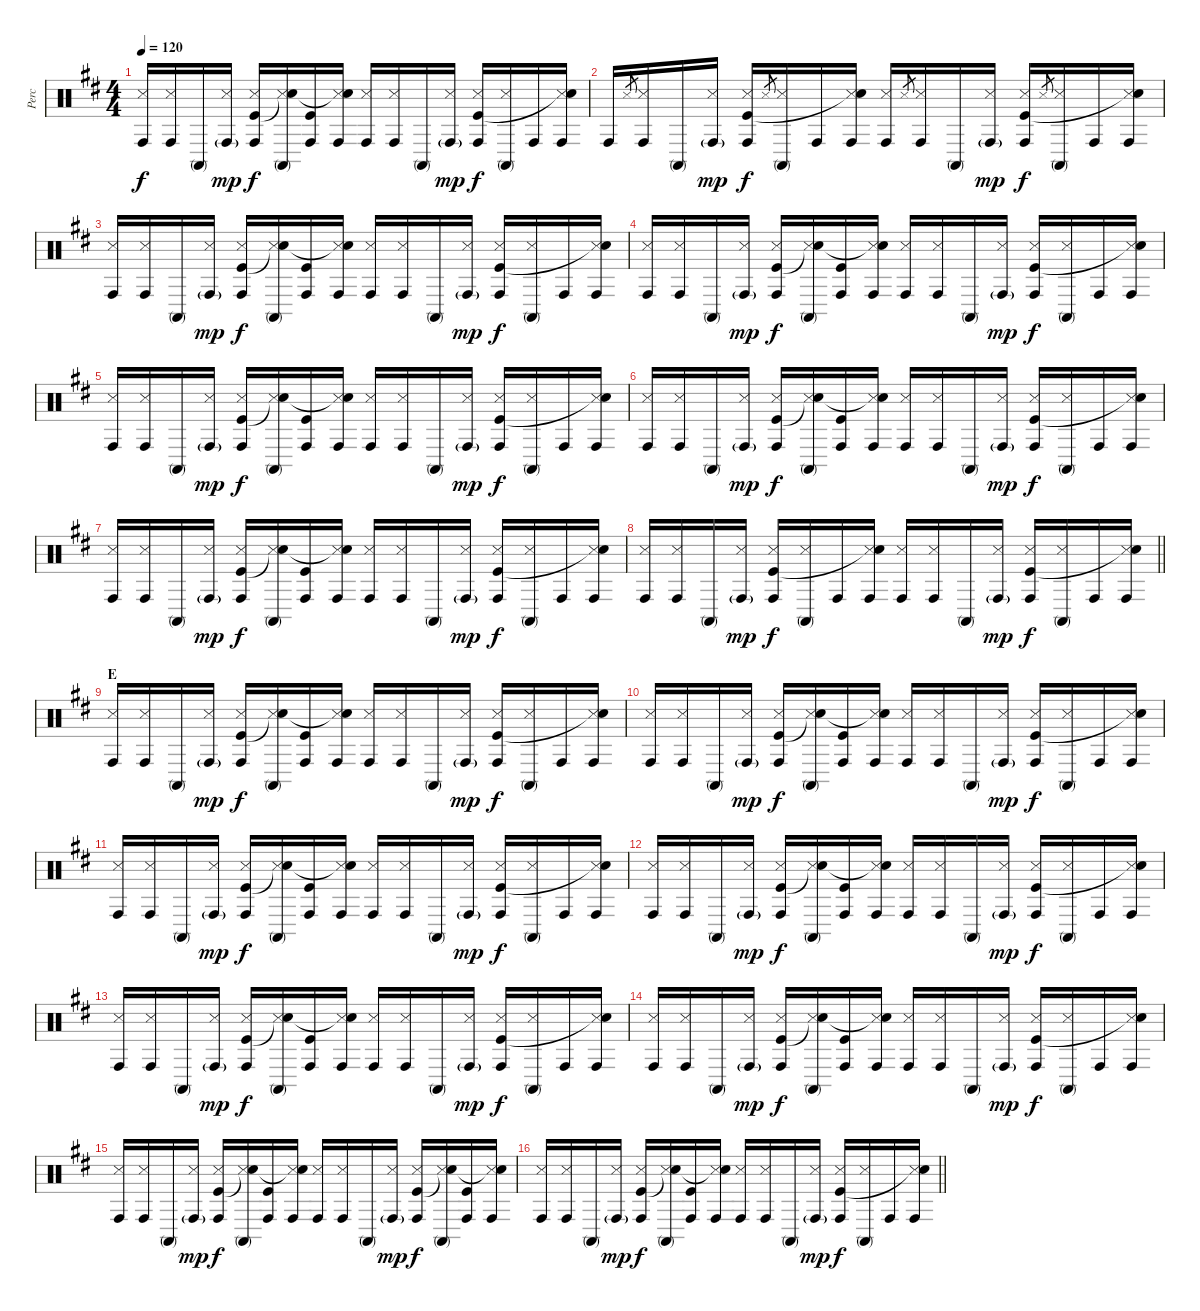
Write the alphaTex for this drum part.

\track ("Perc" "Perc") {instrument percussion}
\staff {score}
\articulation defaults
\ts (4 4)
\tempo 120
\clef neutral
\ks d
("Conga high (hit)" "Snare (side stick) 3").16{dy f} ("Conga high (hit)" "Snare (side stick) 3").16 "Conga high (mute)".16 ("Conga high (hit)"{g} "Snare (side stick) 3").16{dy mp} ("Conga high (hit)" "Snare (side stick) 3" "Kick (hit)").16{dy f} ("Conga high (mute)" "Snare (side stick) 3" "Snare (hit)"{t}).16 ("Conga high (hit)" "Kick (hit)").16 ("Conga high (hit)" "Snare (side stick) 3" "Snare (hit)"{t}).16 ("Conga high (hit)" "Snare (side stick) 3").16 ("Conga high (hit)" "Snare (side stick) 3").16 "Conga high (mute)".16 ("Conga high (hit)"{g} "Snare (side stick) 3").16{dy mp} ("Conga high (hit)" "Snare (side stick) 3" "Kick (hit)").16{dy f} ("Conga high (mute)" "Snare (side stick) 3").16 "Conga high (hit)".16 ("Conga high (hit)" "Snare (side stick) 3" "Snare (hit)"{t}).16 |
"Conga high (hit)".16 "Snare (side stick) 3".8{gr} ("Conga high (hit)" "Snare (side stick) 3").16 "Conga high (mute)".16 ("Conga high (hit)"{g} "Snare (side stick) 3").16{dy mp} ("Conga high (hit)" "Snare (side stick) 3" "Kick (hit)").16{dy f} "Snare (side stick) 3".8{gr} ("Conga high (mute)" "Snare (side stick) 3").16 "Conga high (hit)".16 ("Conga high (hit)" "Snare (side stick) 3" "Snare (hit)"{t}).16 ("Conga high (hit)" "Snare (side stick) 3").16 "Snare (side stick) 3".8{gr} ("Conga high (hit)" "Snare (side stick) 3").16 "Conga high (mute)".16 ("Conga high (hit)"{g} "Snare (side stick) 3").16{dy mp} ("Conga high (hit)" "Snare (side stick) 3" "Kick (hit)").16{dy f} "Snare (side stick) 3".8{gr} ("Conga high (mute)" "Snare (side stick) 3").16 "Conga high (hit)".16 ("Conga high (hit)" "Snare (side stick) 3" "Snare (hit)"{t}).16 |
("Conga high (hit)" "Snare (side stick) 3").16 ("Conga high (hit)" "Snare (side stick) 3").16 "Conga high (mute)".16 ("Conga high (hit)"{g} "Snare (side stick) 3").16{dy mp} ("Conga high (hit)" "Snare (side stick) 3" "Kick (hit)").16{dy f} ("Conga high (mute)" "Snare (side stick) 3" "Snare (hit)"{t}).16 ("Conga high (hit)" "Kick (hit)").16 ("Conga high (hit)" "Snare (side stick) 3" "Snare (hit)"{t}).16 ("Conga high (hit)" "Snare (side stick) 3").16 ("Conga high (hit)" "Snare (side stick) 3").16 "Conga high (mute)".16 ("Conga high (hit)"{g} "Snare (side stick) 3").16{dy mp} ("Conga high (hit)" "Snare (side stick) 3" "Kick (hit)").16{dy f} ("Conga high (mute)" "Snare (side stick) 3").16 "Conga high (hit)".16 ("Conga high (hit)" "Snare (side stick) 3" "Snare (hit)"{t}).16 |
("Conga high (hit)" "Snare (side stick) 3").16 ("Conga high (hit)" "Snare (side stick) 3").16 "Conga high (mute)".16 ("Conga high (hit)"{g} "Snare (side stick) 3").16{dy mp} ("Conga high (hit)" "Snare (side stick) 3" "Kick (hit)").16{dy f} ("Conga high (mute)" "Snare (side stick) 3" "Snare (hit)"{t}).16 ("Conga high (hit)" "Kick (hit)").16 ("Conga high (hit)" "Snare (side stick) 3" "Snare (hit)"{t}).16 ("Conga high (hit)" "Snare (side stick) 3").16 ("Conga high (hit)" "Snare (side stick) 3").16 "Conga high (mute)".16 ("Conga high (hit)"{g} "Snare (side stick) 3").16{dy mp} ("Conga high (hit)" "Snare (side stick) 3" "Kick (hit)").16{dy f} ("Conga high (mute)" "Snare (side stick) 3").16 "Conga high (hit)".16 ("Conga high (hit)" "Snare (side stick) 3" "Snare (hit)"{t}).16 |
("Conga high (hit)" "Snare (side stick) 3").16 ("Conga high (hit)" "Snare (side stick) 3").16 "Conga high (mute)".16 ("Conga high (hit)"{g} "Snare (side stick) 3").16{dy mp} ("Conga high (hit)" "Snare (side stick) 3" "Kick (hit)").16{dy f} ("Conga high (mute)" "Snare (side stick) 3" "Snare (hit)"{t}).16 ("Conga high (hit)" "Kick (hit)").16 ("Conga high (hit)" "Snare (side stick) 3" "Snare (hit)"{t}).16 ("Conga high (hit)" "Snare (side stick) 3").16 ("Conga high (hit)" "Snare (side stick) 3").16 "Conga high (mute)".16 ("Conga high (hit)"{g} "Snare (side stick) 3").16{dy mp} ("Conga high (hit)" "Snare (side stick) 3" "Kick (hit)").16{dy f} ("Conga high (mute)" "Snare (side stick) 3").16 "Conga high (hit)".16 ("Conga high (hit)" "Snare (side stick) 3" "Snare (hit)"{t}).16 |
("Conga high (hit)" "Snare (side stick) 3").16 ("Conga high (hit)" "Snare (side stick) 3").16 "Conga high (mute)".16 ("Conga high (hit)"{g} "Snare (side stick) 3").16{dy mp} ("Conga high (hit)" "Snare (side stick) 3" "Kick (hit)").16{dy f} ("Conga high (mute)" "Snare (side stick) 3" "Snare (hit)"{t}).16 ("Conga high (hit)" "Kick (hit)").16 ("Conga high (hit)" "Snare (side stick) 3" "Snare (hit)"{t}).16 ("Conga high (hit)" "Snare (side stick) 3").16 ("Conga high (hit)" "Snare (side stick) 3").16 "Conga high (mute)".16 ("Conga high (hit)"{g} "Snare (side stick) 3").16{dy mp} ("Conga high (hit)" "Snare (side stick) 3" "Kick (hit)").16{dy f} ("Conga high (mute)" "Snare (side stick) 3").16 "Conga high (hit)".16 ("Conga high (hit)" "Snare (side stick) 3" "Snare (hit)"{t}).16 |
("Conga high (hit)" "Snare (side stick) 3").16 ("Conga high (hit)" "Snare (side stick) 3").16 "Conga high (mute)".16 ("Conga high (hit)"{g} "Snare (side stick) 3").16{dy mp} ("Conga high (hit)" "Snare (side stick) 3" "Kick (hit)").16{dy f} ("Conga high (mute)" "Snare (side stick) 3" "Snare (hit)"{t}).16 ("Conga high (hit)" "Kick (hit)").16 ("Conga high (hit)" "Snare (side stick) 3" "Snare (hit)"{t}).16 ("Conga high (hit)" "Snare (side stick) 3").16 ("Conga high (hit)" "Snare (side stick) 3").16 "Conga high (mute)".16 ("Conga high (hit)"{g} "Snare (side stick) 3").16{dy mp} ("Conga high (hit)" "Snare (side stick) 3" "Kick (hit)").16{dy f} ("Conga high (mute)" "Snare (side stick) 3").16 "Conga high (hit)".16 ("Conga high (hit)" "Snare (side stick) 3" "Snare (hit)"{t}).16 |
\barLineRight lightlight
("Conga high (hit)" "Snare (side stick) 3").16 ("Conga high (hit)" "Snare (side stick) 3").16 "Conga high (mute)".16 ("Conga high (hit)"{g} "Snare (side stick) 3").16{dy mp} ("Conga high (hit)" "Snare (side stick) 3" "Kick (hit)").16{dy f} ("Conga high (mute)" "Snare (side stick) 3").16 "Conga high (hit)".16 ("Conga high (hit)" "Snare (side stick) 3" "Snare (hit)"{t}).16 ("Conga high (hit)" "Snare (side stick) 3").16 ("Conga high (hit)" "Snare (side stick) 3").16 "Conga high (mute)".16 ("Conga high (hit)"{g} "Snare (side stick) 3").16{dy mp} ("Conga high (hit)" "Snare (side stick) 3" "Kick (hit)").16{dy f} ("Conga high (mute)" "Snare (side stick) 3").16 "Conga high (hit)".16 ("Conga high (hit)" "Snare (side stick) 3" "Snare (hit)"{t}).16 |
\section ("" "E")
("Conga high (hit)" "Snare (side stick) 3").16 ("Conga high (hit)" "Snare (side stick) 3").16 "Conga high (mute)".16 ("Conga high (hit)"{g} "Snare (side stick) 3").16{dy mp} ("Conga high (hit)" "Snare (side stick) 3" "Kick (hit)").16{dy f} ("Conga high (mute)" "Snare (side stick) 3" "Snare (hit)"{t}).16 ("Conga high (hit)" "Kick (hit)").16 ("Conga high (hit)" "Snare (side stick) 3" "Snare (hit)"{t}).16 ("Conga high (hit)" "Snare (side stick) 3").16 ("Conga high (hit)" "Snare (side stick) 3").16 "Conga high (mute)".16 ("Conga high (hit)"{g} "Snare (side stick) 3").16{dy mp} ("Conga high (hit)" "Snare (side stick) 3" "Kick (hit)").16{dy f} ("Conga high (mute)" "Snare (side stick) 3").16 "Conga high (hit)".16 ("Conga high (hit)" "Snare (side stick) 3" "Snare (hit)"{t}).16 |
("Conga high (hit)" "Snare (side stick) 3").16 ("Conga high (hit)" "Snare (side stick) 3").16 "Conga high (mute)".16 ("Conga high (hit)"{g} "Snare (side stick) 3").16{dy mp} ("Conga high (hit)" "Snare (side stick) 3" "Kick (hit)").16{dy f} ("Conga high (mute)" "Snare (side stick) 3" "Snare (hit)"{t}).16 ("Conga high (hit)" "Kick (hit)").16 ("Conga high (hit)" "Snare (side stick) 3" "Snare (hit)"{t}).16 ("Conga high (hit)" "Snare (side stick) 3").16 ("Conga high (hit)" "Snare (side stick) 3").16 "Conga high (mute)".16 ("Conga high (hit)"{g} "Snare (side stick) 3").16{dy mp} ("Conga high (hit)" "Snare (side stick) 3" "Kick (hit)").16{dy f} ("Conga high (mute)" "Snare (side stick) 3").16 "Conga high (hit)".16 ("Conga high (hit)" "Snare (side stick) 3" "Snare (hit)"{t}).16 |
("Conga high (hit)" "Snare (side stick) 3").16 ("Conga high (hit)" "Snare (side stick) 3").16 "Conga high (mute)".16 ("Conga high (hit)"{g} "Snare (side stick) 3").16{dy mp} ("Conga high (hit)" "Snare (side stick) 3" "Kick (hit)").16{dy f} ("Conga high (mute)" "Snare (side stick) 3" "Snare (hit)"{t}).16 ("Conga high (hit)" "Kick (hit)").16 ("Conga high (hit)" "Snare (side stick) 3" "Snare (hit)"{t}).16 ("Conga high (hit)" "Snare (side stick) 3").16 ("Conga high (hit)" "Snare (side stick) 3").16 "Conga high (mute)".16 ("Conga high (hit)"{g} "Snare (side stick) 3").16{dy mp} ("Conga high (hit)" "Snare (side stick) 3" "Kick (hit)").16{dy f} ("Conga high (mute)" "Snare (side stick) 3").16 "Conga high (hit)".16 ("Conga high (hit)" "Snare (side stick) 3" "Snare (hit)"{t}).16 |
("Conga high (hit)" "Snare (side stick) 3").16 ("Conga high (hit)" "Snare (side stick) 3").16 "Conga high (mute)".16 ("Conga high (hit)"{g} "Snare (side stick) 3").16{dy mp} ("Conga high (hit)" "Snare (side stick) 3" "Kick (hit)").16{dy f} ("Conga high (mute)" "Snare (side stick) 3" "Snare (hit)"{t}).16 ("Conga high (hit)" "Kick (hit)").16 ("Conga high (hit)" "Snare (side stick) 3" "Snare (hit)"{t}).16 ("Conga high (hit)" "Snare (side stick) 3").16 ("Conga high (hit)" "Snare (side stick) 3").16 "Conga high (mute)".16 ("Conga high (hit)"{g} "Snare (side stick) 3").16{dy mp} ("Conga high (hit)" "Snare (side stick) 3" "Kick (hit)").16{dy f} ("Conga high (mute)" "Snare (side stick) 3").16 "Conga high (hit)".16 ("Conga high (hit)" "Snare (side stick) 3" "Snare (hit)"{t}).16 |
("Conga high (hit)" "Snare (side stick) 3").16 ("Conga high (hit)" "Snare (side stick) 3").16 "Conga high (mute)".16 ("Conga high (hit)"{g} "Snare (side stick) 3").16{dy mp} ("Conga high (hit)" "Snare (side stick) 3" "Kick (hit)").16{dy f} ("Conga high (mute)" "Snare (side stick) 3" "Snare (hit)"{t}).16 ("Conga high (hit)" "Kick (hit)").16 ("Conga high (hit)" "Snare (side stick) 3" "Snare (hit)"{t}).16 ("Conga high (hit)" "Snare (side stick) 3").16 ("Conga high (hit)" "Snare (side stick) 3").16 "Conga high (mute)".16 ("Conga high (hit)"{g} "Snare (side stick) 3").16{dy mp} ("Conga high (hit)" "Snare (side stick) 3" "Kick (hit)").16{dy f} ("Conga high (mute)" "Snare (side stick) 3").16 "Conga high (hit)".16 ("Conga high (hit)" "Snare (side stick) 3" "Snare (hit)"{t}).16 |
("Conga high (hit)" "Snare (side stick) 3").16 ("Conga high (hit)" "Snare (side stick) 3").16 "Conga high (mute)".16 ("Conga high (hit)"{g} "Snare (side stick) 3").16{dy mp} ("Conga high (hit)" "Snare (side stick) 3" "Kick (hit)").16{dy f} ("Conga high (mute)" "Snare (side stick) 3" "Snare (hit)"{t}).16 ("Conga high (hit)" "Kick (hit)").16 ("Conga high (hit)" "Snare (side stick) 3" "Snare (hit)"{t}).16 ("Conga high (hit)" "Snare (side stick) 3").16 ("Conga high (hit)" "Snare (side stick) 3").16 "Conga high (mute)".16 ("Conga high (hit)"{g} "Snare (side stick) 3").16{dy mp} ("Conga high (hit)" "Snare (side stick) 3" "Kick (hit)").16{dy f} ("Conga high (mute)" "Snare (side stick) 3").16 "Conga high (hit)".16 ("Conga high (hit)" "Snare (side stick) 3" "Snare (hit)"{t}).16 |
("Conga high (hit)" "Snare (side stick) 3").16 ("Conga high (hit)" "Snare (side stick) 3").16 "Conga high (mute)".16 ("Conga high (hit)"{g} "Snare (side stick) 3").16{dy mp} ("Conga high (hit)" "Snare (side stick) 3" "Kick (hit)").16{dy f} ("Conga high (mute)" "Snare (side stick) 3" "Snare (hit)"{t}).16 ("Conga high (hit)" "Kick (hit)").16 ("Conga high (hit)" "Snare (side stick) 3" "Snare (hit)"{t}).16 ("Conga high (hit)" "Snare (side stick) 3").16 ("Conga high (hit)" "Snare (side stick) 3").16 "Conga high (mute)".16 ("Conga high (hit)"{g} "Snare (side stick) 3").16{dy mp} ("Conga high (hit)" "Snare (side stick) 3" "Kick (hit)").16{dy f} ("Conga high (mute)" "Snare (side stick) 3" "Snare (hit)"{t}).16 ("Conga high (hit)" "Kick (hit)").16 ("Conga high (hit)" "Snare (side stick) 3" "Snare (hit)"{t}).16 |
\barLineRight lightlight
("Conga high (hit)" "Snare (side stick) 3").16 ("Conga high (hit)" "Snare (side stick) 3").16 "Conga high (mute)".16 ("Conga high (hit)"{g} "Snare (side stick) 3").16{dy mp} ("Conga high (hit)" "Snare (side stick) 3" "Kick (hit)").16{dy f} ("Conga high (mute)" "Snare (side stick) 3" "Snare (hit)"{t}).16 ("Conga high (hit)" "Kick (hit)").16 ("Conga high (hit)" "Snare (side stick) 3" "Snare (hit)"{t}).16 ("Conga high (hit)" "Snare (side stick) 3").16 ("Conga high (hit)" "Snare (side stick) 3").16 "Conga high (mute)".16 ("Conga high (hit)"{g} "Snare (side stick) 3").16{dy mp} ("Conga high (hit)" "Snare (side stick) 3" "Kick (hit)").16{dy f} ("Conga high (mute)" "Snare (side stick) 3").16 "Conga high (hit)".16 ("Conga high (hit)" "Snare (side stick) 3" "Snare (hit)"{t}).16
